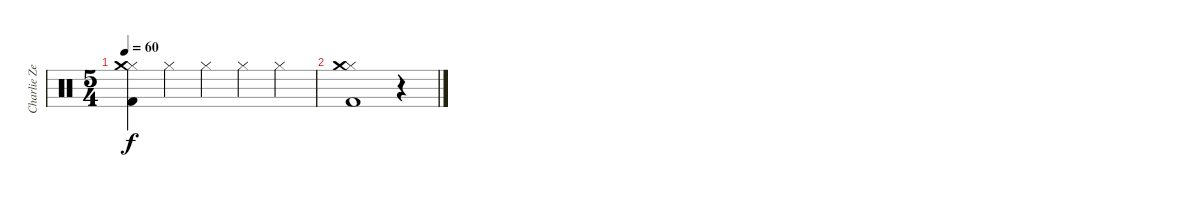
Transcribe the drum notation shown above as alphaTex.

\track ("Charlie Zeleny - Drums" "Charlie Ze") {instrument percussion}
\staff {score}
\articulation defaults
\ts (5 4)
\tempo 60
\clef neutral
\ks c
("Hi-Hat (closed)" "Crash medium (hit)" "Kick (hit) 2").4{dy f} "Hi-Hat (closed)".4 "Hi-Hat (closed)".4 "Hi-Hat (closed)".4 "Hi-Hat (closed)".4 |
("Hi-Hat (closed)" "Crash medium (hit)" "Kick (hit) 2").1 r.4
